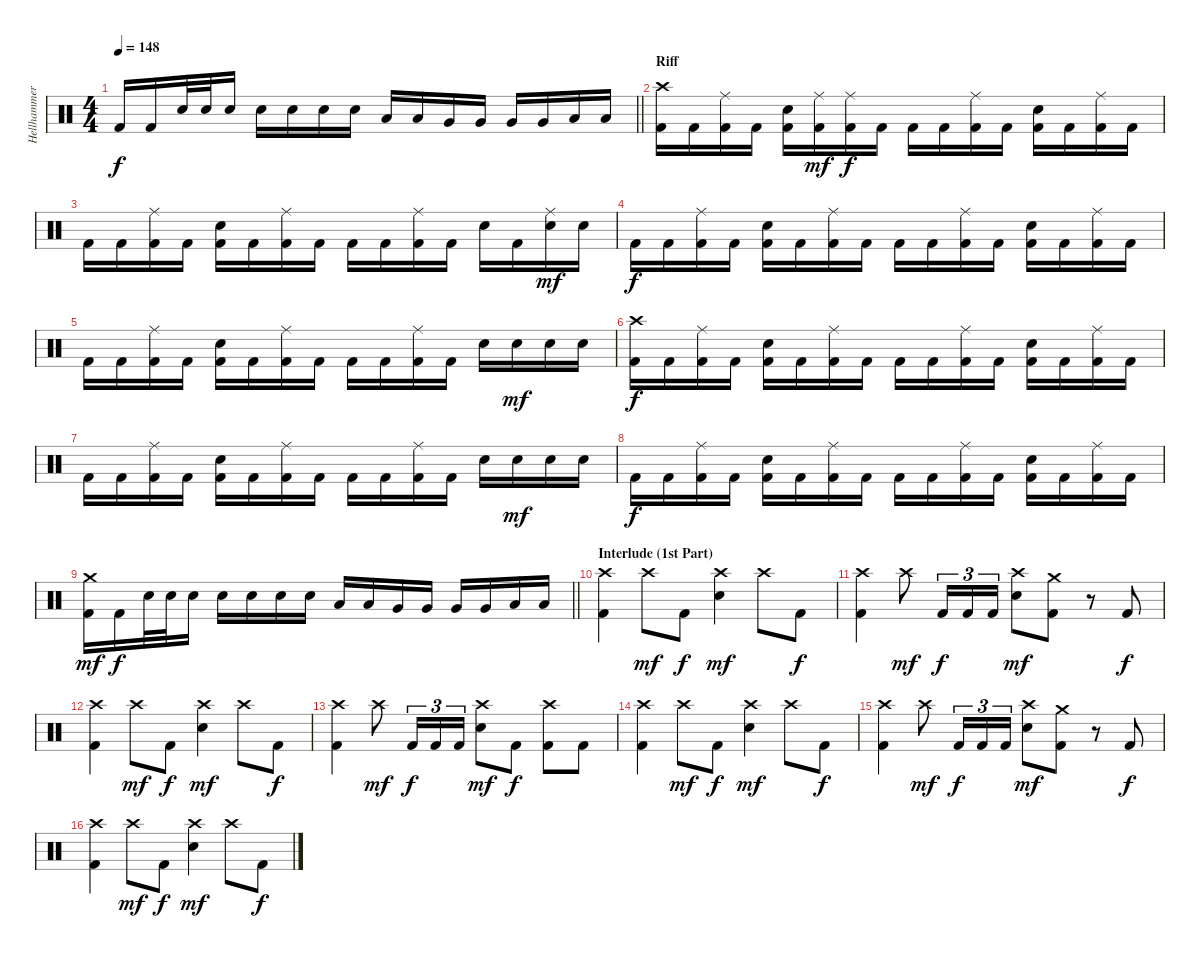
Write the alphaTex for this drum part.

\track ("Hellhammer" "Hellhammer") {instrument percussion}
\staff {score}
\articulation defaults
\ts (4 4)
\tempo 148
\clef neutral
\barLineRight lightlight
\ks c "Kick (hit) 2".16{dy f} "Kick (hit) 2".16 "Snare (hit) 2".32 "Snare (hit) 2".32 "Snare (hit) 2".16 "Snare (hit) 2".16 "Snare (hit) 2".16 "Snare (hit) 2".16 "Snare (hit) 2".16 "Low Tom (hit)".16 "Low Tom (hit)".16 "Very Low Tom (hit)".16 "Very Low Tom (hit)".16 "Very Low Tom (hit)".16 "Very Low Tom (hit)".16 "Low Floor Tom (hit)".16 "Low Floor Tom (hit)".16
|
\section ("" "Riff ")
("Crash high (hit)" "Kick (hit) 2").16 "Kick (hit) 2".16 ("Ride (middle)" "Kick (hit) 2").16 "Kick (hit) 2".16 ("Snare (hit) 2" "Kick (hit) 2").16 ("Ride (middle)" "Kick (hit) 2").16{dy mf} ("Ride (middle)" "Kick (hit) 2").16{dy f} "Kick (hit) 2".16 "Kick (hit) 2".16 "Kick (hit) 2".16 ("Ride (middle)" "Kick (hit) 2").16 "Kick (hit) 2".16 ("Snare (hit) 2" "Kick (hit) 2").16 "Kick (hit) 2".16 ("Ride (middle)" "Kick (hit) 2").16 "Kick (hit) 2".16 |
"Kick (hit) 2".16 "Kick (hit) 2".16 ("Ride (middle)" "Kick (hit) 2").16 "Kick (hit) 2".16 ("Snare (hit) 2" "Kick (hit) 2").16 "Kick (hit) 2".16 ("Ride (middle)" "Kick (hit) 2").16 "Kick (hit) 2".16 "Kick (hit) 2".16 "Kick (hit) 2".16 ("Ride (middle)" "Kick (hit) 2").16 "Kick (hit) 2".16 "Snare (hit) 2".16 "Kick (hit) 2".16 ("Ride (middle)" "Snare (hit) 2").16{dy mf} "Snare (hit) 2".16 |
"Kick (hit) 2".16{dy f} "Kick (hit) 2".16 ("Ride (middle)" "Kick (hit) 2").16 "Kick (hit) 2".16 ("Snare (hit) 2" "Kick (hit) 2").16 "Kick (hit) 2".16 ("Ride (middle)" "Kick (hit) 2").16 "Kick (hit) 2".16 "Kick (hit) 2".16 "Kick (hit) 2".16 ("Ride (middle)" "Kick (hit) 2").16 "Kick (hit) 2".16 ("Snare (hit) 2" "Kick (hit) 2").16 "Kick (hit) 2".16 ("Ride (middle)" "Kick (hit) 2").16 "Kick (hit) 2".16 |
"Kick (hit) 2".16 "Kick (hit) 2".16 ("Ride (middle)" "Kick (hit) 2").16 "Kick (hit) 2".16 ("Snare (hit) 2" "Kick (hit) 2").16 "Kick (hit) 2".16 ("Ride (middle)" "Kick (hit) 2").16 "Kick (hit) 2".16 "Kick (hit) 2".16 "Kick (hit) 2".16 ("Ride (middle)" "Kick (hit) 2").16 "Kick (hit) 2".16 "Snare (hit) 2".16 "Snare (hit) 2".16{dy mf} "Snare (hit) 2".16 "Snare (hit) 2".16 |
("Crash high (hit)" "Kick (hit) 2").16{dy f} "Kick (hit) 2".16 ("Ride (middle)" "Kick (hit) 2").16 "Kick (hit) 2".16 ("Snare (hit) 2" "Kick (hit) 2").16 "Kick (hit) 2".16 ("Ride (middle)" "Kick (hit) 2").16 "Kick (hit) 2".16 "Kick (hit) 2".16 "Kick (hit) 2".16 ("Ride (middle)" "Kick (hit) 2").16 "Kick (hit) 2".16 ("Snare (hit) 2" "Kick (hit) 2").16 "Kick (hit) 2".16 ("Ride (middle)" "Kick (hit) 2").16 "Kick (hit) 2".16 |
"Kick (hit) 2".16 "Kick (hit) 2".16 ("Ride (middle)" "Kick (hit) 2").16 "Kick (hit) 2".16 ("Snare (hit) 2" "Kick (hit) 2").16 "Kick (hit) 2".16 ("Ride (middle)" "Kick (hit) 2").16 "Kick (hit) 2".16 "Kick (hit) 2".16 "Kick (hit) 2".16 ("Ride (middle)" "Kick (hit) 2").16 "Kick (hit) 2".16 "Snare (hit) 2".16 "Snare (hit) 2".16{dy mf} "Snare (hit) 2".16 "Snare (hit) 2".16 |
"Kick (hit) 2".16{dy f} "Kick (hit) 2".16 ("Ride (middle)" "Kick (hit) 2").16 "Kick (hit) 2".16 ("Snare (hit) 2" "Kick (hit) 2").16 "Kick (hit) 2".16 ("Ride (middle)" "Kick (hit) 2").16 "Kick (hit) 2".16 "Kick (hit) 2".16 "Kick (hit) 2".16 ("Ride (middle)" "Kick (hit) 2").16 "Kick (hit) 2".16 ("Snare (hit) 2" "Kick (hit) 2").16 "Kick (hit) 2".16 ("Ride (middle)" "Kick (hit) 2").16 "Kick (hit) 2".16 |
\barLineRight lightlight
("Crash medium (hit)" "Kick (hit) 2").16{dy mf} "Kick (hit) 2".16{dy f} "Snare (hit) 2".32 "Snare (hit) 2".32 "Snare (hit) 2".16 "Snare (hit) 2".16 "Snare (hit) 2".16 "Snare (hit) 2".16 "Snare (hit) 2".16 "Low Tom (hit)".16 "Low Tom (hit)".16 "Very Low Tom (hit)".16 "Very Low Tom (hit)".16 "Very Low Tom (hit)".16 "Very Low Tom (hit)".16 "Low Floor Tom (hit)".16 "Low Floor Tom (hit)".16 |
\section ("" "Interlude (1st Part)")
("Crash high (hit)" "Kick (hit) 2").4 "Crash high (hit)".8{dy mf} "Kick (hit) 2".8{dy f} ("Crash high (hit)" "Snare (hit) 2").4{dy mf} "Crash high (hit)".8 "Kick (hit) 2".8{dy f} |
("Crash high (hit)" "Kick (hit) 2").4 "Crash high (hit)".8{dy mf} "Kick (hit) 2".16{tu (3 2) dy f} "Kick (hit) 2".16{tu (3 2)} "Kick (hit) 2".16{tu (3 2)} ("Crash high (hit)" "Snare (hit) 2").8{dy mf} ("Crash medium (hit)" "Kick (hit) 2").8 r.8 "Kick (hit) 2".8{dy f} |
("Crash high (hit)" "Kick (hit) 2").4 "Crash high (hit)".8{dy mf} "Kick (hit) 2".8{dy f} ("Crash high (hit)" "Snare (hit) 2").4{dy mf} "Crash high (hit)".8 "Kick (hit) 2".8{dy f} |
("Crash high (hit)" "Kick (hit) 2").4 "Crash high (hit)".8{dy mf} "Kick (hit) 2".16{tu (3 2) dy f} "Kick (hit) 2".16{tu (3 2)} "Kick (hit) 2".16{tu (3 2)} ("Crash high (hit)" "Snare (hit) 2").8{dy mf} "Kick (hit) 2".8{dy f} ("Crash high (hit)" "Kick (hit) 2").8 "Kick (hit) 2".8 |
("Crash high (hit)" "Kick (hit) 2").4 "Crash high (hit)".8{dy mf} "Kick (hit) 2".8{dy f} ("Crash high (hit)" "Snare (hit) 2").4{dy mf} "Crash high (hit)".8 "Kick (hit) 2".8{dy f} |
("Crash high (hit)" "Kick (hit) 2").4 "Crash high (hit)".8{dy mf} "Kick (hit) 2".16{tu (3 2) dy f} "Kick (hit) 2".16{tu (3 2)} "Kick (hit) 2".16{tu (3 2)} ("Crash high (hit)" "Snare (hit) 2").8{dy mf} ("Crash medium (hit)" "Kick (hit) 2").8 r.8 "Kick (hit) 2".8{dy f} |
("Crash high (hit)" "Kick (hit) 2").4 "Crash high (hit)".8{dy mf} "Kick (hit) 2".8{dy f} ("Crash high (hit)" "Snare (hit) 2").4{dy mf} "Crash high (hit)".8 "Kick (hit) 2".8{dy f}
